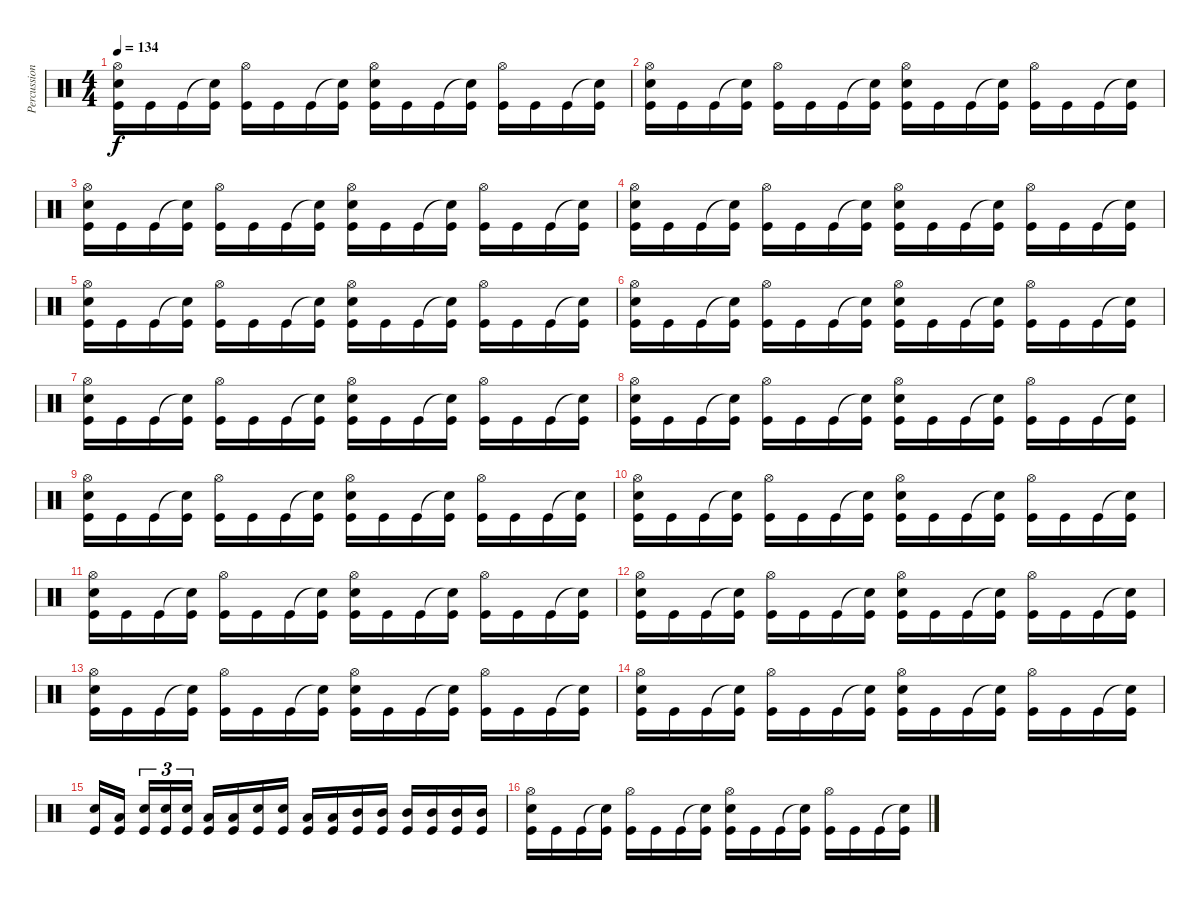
\track ("Percussion" "Percussion") {instrument percussion}
\staff {score}
\articulation defaults
\ts (4 4)
\tempo 134
\clef neutral
\ks c
("Hi-Hat (open)" "Electric Snare (hit)" "Kick (hit)").16{dy f} "Kick (hit)".16 "Kick (hit)".16 ("Snare (hit)"{t} "Kick (hit)").16 ("Hi-Hat (open)" "Kick (hit)").16 "Kick (hit)".16 "Kick (hit)".16 ("Snare (hit)"{t} "Kick (hit)").16 ("Hi-Hat (open)" "Electric Snare (hit)" "Kick (hit)").16 "Kick (hit)".16 "Kick (hit)".16 ("Snare (hit)"{t} "Kick (hit)").16 ("Hi-Hat (open)" "Kick (hit)").16 "Kick (hit)".16 "Kick (hit)".16 ("Snare (hit)"{t} "Kick (hit)").16 |
("Hi-Hat (open)" "Electric Snare (hit)" "Kick (hit)").16 "Kick (hit)".16 "Kick (hit)".16 ("Snare (hit)"{t} "Kick (hit)").16 ("Hi-Hat (open)" "Kick (hit)").16 "Kick (hit)".16 "Kick (hit)".16 ("Snare (hit)"{t} "Kick (hit)").16 ("Hi-Hat (open)" "Electric Snare (hit)" "Kick (hit)").16 "Kick (hit)".16 "Kick (hit)".16 ("Snare (hit)"{t} "Kick (hit)").16 ("Hi-Hat (open)" "Kick (hit)").16 "Kick (hit)".16 "Kick (hit)".16 ("Snare (hit)"{t} "Kick (hit)").16 |
("Hi-Hat (open)" "Electric Snare (hit)" "Kick (hit)").16 "Kick (hit)".16 "Kick (hit)".16 ("Snare (hit)"{t} "Kick (hit)").16 ("Hi-Hat (open)" "Kick (hit)").16 "Kick (hit)".16 "Kick (hit)".16 ("Snare (hit)"{t} "Kick (hit)").16 ("Hi-Hat (open)" "Electric Snare (hit)" "Kick (hit)").16 "Kick (hit)".16 "Kick (hit)".16 ("Snare (hit)"{t} "Kick (hit)").16 ("Hi-Hat (open)" "Kick (hit)").16 "Kick (hit)".16 "Kick (hit)".16 ("Snare (hit)"{t} "Kick (hit)").16 |
("Hi-Hat (open)" "Electric Snare (hit)" "Kick (hit)").16 "Kick (hit)".16 "Kick (hit)".16 ("Snare (hit)"{t} "Kick (hit)").16 ("Hi-Hat (open)" "Kick (hit)").16 "Kick (hit)".16 "Kick (hit)".16 ("Snare (hit)"{t} "Kick (hit)").16 ("Hi-Hat (open)" "Electric Snare (hit)" "Kick (hit)").16 "Kick (hit)".16 "Kick (hit)".16 ("Snare (hit)"{t} "Kick (hit)").16 ("Hi-Hat (open)" "Kick (hit)").16 "Kick (hit)".16 "Kick (hit)".16 ("Snare (hit)"{t} "Kick (hit)").16 |
("Hi-Hat (open)" "Electric Snare (hit)" "Kick (hit)").16 "Kick (hit)".16 "Kick (hit)".16 ("Snare (hit)"{t} "Kick (hit)").16 ("Hi-Hat (open)" "Kick (hit)").16 "Kick (hit)".16 "Kick (hit)".16 ("Snare (hit)"{t} "Kick (hit)").16 ("Hi-Hat (open)" "Electric Snare (hit)" "Kick (hit)").16 "Kick (hit)".16 "Kick (hit)".16 ("Snare (hit)"{t} "Kick (hit)").16 ("Hi-Hat (open)" "Kick (hit)").16 "Kick (hit)".16 "Kick (hit)".16 ("Snare (hit)"{t} "Kick (hit)").16 |
("Hi-Hat (open)" "Electric Snare (hit)" "Kick (hit)").16 "Kick (hit)".16 "Kick (hit)".16 ("Snare (hit)"{t} "Kick (hit)").16 ("Hi-Hat (open)" "Kick (hit)").16 "Kick (hit)".16 "Kick (hit)".16 ("Snare (hit)"{t} "Kick (hit)").16 ("Hi-Hat (open)" "Electric Snare (hit)" "Kick (hit)").16 "Kick (hit)".16 "Kick (hit)".16 ("Snare (hit)"{t} "Kick (hit)").16 ("Hi-Hat (open)" "Kick (hit)").16 "Kick (hit)".16 "Kick (hit)".16 ("Snare (hit)"{t} "Kick (hit)").16 |
("Hi-Hat (open)" "Electric Snare (hit)" "Kick (hit)").16 "Kick (hit)".16 "Kick (hit)".16 ("Snare (hit)"{t} "Kick (hit)").16 ("Hi-Hat (open)" "Kick (hit)").16 "Kick (hit)".16 "Kick (hit)".16 ("Snare (hit)"{t} "Kick (hit)").16 ("Hi-Hat (open)" "Electric Snare (hit)" "Kick (hit)").16 "Kick (hit)".16 "Kick (hit)".16 ("Snare (hit)"{t} "Kick (hit)").16 ("Hi-Hat (open)" "Kick (hit)").16 "Kick (hit)".16 "Kick (hit)".16 ("Snare (hit)"{t} "Kick (hit)").16 |
("Hi-Hat (open)" "Electric Snare (hit)" "Kick (hit)").16 "Kick (hit)".16 "Kick (hit)".16 ("Snare (hit)"{t} "Kick (hit)").16 ("Hi-Hat (open)" "Kick (hit)").16 "Kick (hit)".16 "Kick (hit)".16 ("Snare (hit)"{t} "Kick (hit)").16 ("Hi-Hat (open)" "Electric Snare (hit)" "Kick (hit)").16 "Kick (hit)".16 "Kick (hit)".16 ("Snare (hit)"{t} "Kick (hit)").16 ("Hi-Hat (open)" "Kick (hit)").16 "Kick (hit)".16 "Kick (hit)".16 ("Snare (hit)"{t} "Kick (hit)").16 |
("Hi-Hat (open)" "Electric Snare (hit)" "Kick (hit)").16 "Kick (hit)".16 "Kick (hit)".16 ("Snare (hit)"{t} "Kick (hit)").16 ("Hi-Hat (open)" "Kick (hit)").16 "Kick (hit)".16 "Kick (hit)".16 ("Snare (hit)"{t} "Kick (hit)").16 ("Hi-Hat (open)" "Electric Snare (hit)" "Kick (hit)").16 "Kick (hit)".16 "Kick (hit)".16 ("Snare (hit)"{t} "Kick (hit)").16 ("Hi-Hat (open)" "Kick (hit)").16 "Kick (hit)".16 "Kick (hit)".16 ("Snare (hit)"{t} "Kick (hit)").16 |
("Hi-Hat (open)" "Electric Snare (hit)" "Kick (hit)").16 "Kick (hit)".16 "Kick (hit)".16 ("Snare (hit)"{t} "Kick (hit)").16 ("Hi-Hat (open)" "Kick (hit)").16 "Kick (hit)".16 "Kick (hit)".16 ("Snare (hit)"{t} "Kick (hit)").16 ("Hi-Hat (open)" "Electric Snare (hit)" "Kick (hit)").16 "Kick (hit)".16 "Kick (hit)".16 ("Snare (hit)"{t} "Kick (hit)").16 ("Hi-Hat (open)" "Kick (hit)").16 "Kick (hit)".16 "Kick (hit)".16 ("Snare (hit)"{t} "Kick (hit)").16 |
("Hi-Hat (open)" "Electric Snare (hit)" "Kick (hit)").16 "Kick (hit)".16 "Kick (hit)".16 ("Snare (hit)"{t} "Kick (hit)").16 ("Hi-Hat (open)" "Kick (hit)").16 "Kick (hit)".16 "Kick (hit)".16 ("Snare (hit)"{t} "Kick (hit)").16 ("Hi-Hat (open)" "Electric Snare (hit)" "Kick (hit)").16 "Kick (hit)".16 "Kick (hit)".16 ("Snare (hit)"{t} "Kick (hit)").16 ("Hi-Hat (open)" "Kick (hit)").16 "Kick (hit)".16 "Kick (hit)".16 ("Snare (hit)"{t} "Kick (hit)").16 |
("Hi-Hat (open)" "Electric Snare (hit)" "Kick (hit)").16 "Kick (hit)".16 "Kick (hit)".16 ("Snare (hit)"{t} "Kick (hit)").16 ("Hi-Hat (open)" "Kick (hit)").16 "Kick (hit)".16 "Kick (hit)".16 ("Snare (hit)"{t} "Kick (hit)").16 ("Hi-Hat (open)" "Electric Snare (hit)" "Kick (hit)").16 "Kick (hit)".16 "Kick (hit)".16 ("Snare (hit)"{t} "Kick (hit)").16 ("Hi-Hat (open)" "Kick (hit)").16 "Kick (hit)".16 "Kick (hit)".16 ("Snare (hit)"{t} "Kick (hit)").16 |
("Hi-Hat (open)" "Electric Snare (hit)" "Kick (hit)").16 "Kick (hit)".16 "Kick (hit)".16 ("Snare (hit)"{t} "Kick (hit)").16 ("Hi-Hat (open)" "Kick (hit)").16 "Kick (hit)".16 "Kick (hit)".16 ("Snare (hit)"{t} "Kick (hit)").16 ("Hi-Hat (open)" "Electric Snare (hit)" "Kick (hit)").16 "Kick (hit)".16 "Kick (hit)".16 ("Snare (hit)"{t} "Kick (hit)").16 ("Hi-Hat (open)" "Kick (hit)").16 "Kick (hit)".16 "Kick (hit)".16 ("Snare (hit)"{t} "Kick (hit)").16 |
("Hi-Hat (open)" "Electric Snare (hit)" "Kick (hit)").16 "Kick (hit)".16 "Kick (hit)".16 ("Snare (hit)"{t} "Kick (hit)").16 ("Hi-Hat (open)" "Kick (hit)").16 "Kick (hit)".16 "Kick (hit)".16 ("Snare (hit)"{t} "Kick (hit)").16 ("Hi-Hat (open)" "Electric Snare (hit)" "Kick (hit)").16 "Kick (hit)".16 "Kick (hit)".16 ("Snare (hit)"{t} "Kick (hit)").16 ("Hi-Hat (open)" "Kick (hit)").16 "Kick (hit)".16 "Kick (hit)".16 ("Snare (hit)"{t} "Kick (hit)").16 |
("Electric Snare (hit)" "Kick (hit)").16 ("Low Tom (hit)" "Kick (hit)").16 ("Electric Snare (hit)" "Kick (hit)").16{tu (3 2)} ("Electric Snare (hit)" "Kick (hit)").16{tu (3 2)} ("Electric Snare (hit)" "Kick (hit)").16{tu (3 2)} ("Low Tom (hit)" "Kick (hit)").16 ("Low Tom (hit)" "Kick (hit)").16 ("Electric Snare (hit)" "Kick (hit)").16 ("Electric Snare (hit)" "Kick (hit)").16 ("Low Tom (hit)" "Kick (hit)").16 ("Low Tom (hit)" "Kick (hit)").16 ("Mid Tom (hit)" "Kick (hit)").16 ("Mid Tom (hit)" "Kick (hit)").16 ("Mid Tom (hit)" "Kick (hit)").16 ("Mid Tom (hit)" "Kick (hit)").16 ("Mid Tom (hit)" "Kick (hit)").16 ("Mid Tom (hit)" "Kick (hit)").16 |
("Hi-Hat (open)" "Electric Snare (hit)" "Kick (hit)").16 "Kick (hit)".16 "Kick (hit)".16 ("Snare (hit)"{t} "Kick (hit)").16 ("Hi-Hat (open)" "Kick (hit)").16 "Kick (hit)".16 "Kick (hit)".16 ("Snare (hit)"{t} "Kick (hit)").16 ("Hi-Hat (open)" "Electric Snare (hit)" "Kick (hit)").16 "Kick (hit)".16 "Kick (hit)".16 ("Snare (hit)"{t} "Kick (hit)").16 ("Hi-Hat (open)" "Kick (hit)").16 "Kick (hit)".16 "Kick (hit)".16 ("Snare (hit)"{t} "Kick (hit)").16
